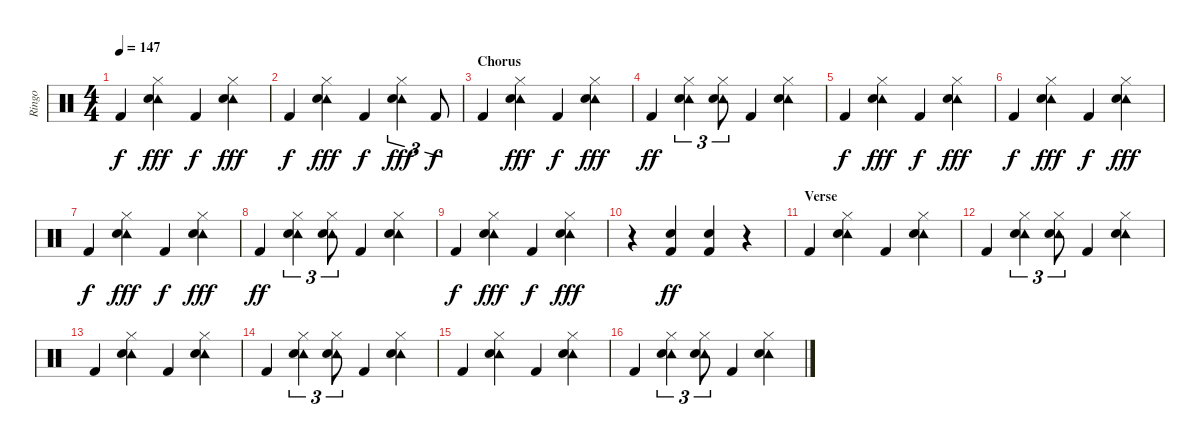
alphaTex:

\track ("Ringo" "Ringo") {instrument percussion}
\staff {score}
\articulation defaults
\ts (4 4)
\tempo 147
\clef neutral
\ks c "Kick (hit) 2".4{dy f}
("Tambourine (hit)" "Hi-Hat (closed)" "Snare (hit) 2").4{dy fff} "Kick (hit) 2".4{dy f} ("Tambourine (hit)" "Hi-Hat (closed)" "Snare (hit) 2").4{dy fff} |
"Kick (hit) 2".4{dy f} ("Tambourine (hit)" "Hi-Hat (closed)" "Snare (hit) 2").4{dy fff} "Kick (hit) 2".4{dy f} ("Tambourine (hit)" "Hi-Hat (closed)" "Snare (hit) 2").4{tu (3 2) dy fff} "Kick (hit) 2".8{tu (3 2) dy f} |
\section ("" "Chorus")
"Kick (hit) 2".4 ("Tambourine (hit)" "Hi-Hat (closed)" "Snare (hit) 2").4{dy fff} "Kick (hit) 2".4{dy f} ("Tambourine (hit)" "Hi-Hat (closed)" "Snare (hit) 2").4{dy fff} |
"Kick (hit) 2".4{dy ff} ("Tambourine (hit)" "Hi-Hat (closed)" "Snare (hit) 2").4{tu (3 2)} ("Tambourine (hit)" "Hi-Hat (closed)" "Snare (hit) 2").8{tu (3 2)} "Kick (hit) 2".4 ("Tambourine (hit)" "Hi-Hat (closed)" "Snare (hit) 2").4 |
"Kick (hit) 2".4{dy f} ("Tambourine (hit)" "Hi-Hat (closed)" "Snare (hit) 2").4{dy fff} "Kick (hit) 2".4{dy f} ("Tambourine (hit)" "Hi-Hat (closed)" "Snare (hit) 2").4{dy fff} |
"Kick (hit) 2".4{dy f} ("Tambourine (hit)" "Hi-Hat (closed)" "Snare (hit) 2").4{dy fff} "Kick (hit) 2".4{dy f} ("Tambourine (hit)" "Hi-Hat (closed)" "Snare (hit) 2").4{dy fff} |
"Kick (hit) 2".4{dy f} ("Tambourine (hit)" "Hi-Hat (closed)" "Snare (hit) 2").4{dy fff} "Kick (hit) 2".4{dy f} ("Tambourine (hit)" "Hi-Hat (closed)" "Snare (hit) 2").4{dy fff} |
"Kick (hit) 2".4{dy ff} ("Tambourine (hit)" "Hi-Hat (closed)" "Snare (hit) 2").4{tu (3 2)} ("Tambourine (hit)" "Hi-Hat (closed)" "Snare (hit) 2").8{tu (3 2)} "Kick (hit) 2".4 ("Tambourine (hit)" "Hi-Hat (closed)" "Snare (hit) 2").4 |
"Kick (hit) 2".4{dy f} ("Tambourine (hit)" "Hi-Hat (closed)" "Snare (hit) 2").4{dy fff} "Kick (hit) 2".4{dy f} ("Tambourine (hit)" "Hi-Hat (closed)" "Snare (hit) 2").4{dy fff} |
r.4 ("Snare (hit) 2" "Kick (hit) 2").4{dy ff volume 16} ("Snare (hit) 2" "Kick (hit) 2").4 r.4 |
\section ("" "Verse")
"Kick (hit) 2".4{volume 13} ("Tambourine (hit)" "Hi-Hat (closed)" "Snare (hit) 2").4 "Kick (hit) 2".4 ("Tambourine (hit)" "Hi-Hat (closed)" "Snare (hit) 2").4 |
"Kick (hit) 2".4 ("Tambourine (hit)" "Hi-Hat (closed)" "Snare (hit) 2").4{tu (3 2)} ("Tambourine (hit)" "Hi-Hat (closed)" "Snare (hit) 2").8{tu (3 2)} "Kick (hit) 2".4 ("Tambourine (hit)" "Hi-Hat (closed)" "Snare (hit) 2").4 |
"Kick (hit) 2".4 ("Tambourine (hit)" "Hi-Hat (closed)" "Snare (hit) 2").4 "Kick (hit) 2".4 ("Tambourine (hit)" "Hi-Hat (closed)" "Snare (hit) 2").4 |
"Kick (hit) 2".4 ("Tambourine (hit)" "Hi-Hat (closed)" "Snare (hit) 2").4{tu (3 2)} ("Tambourine (hit)" "Hi-Hat (closed)" "Snare (hit) 2").8{tu (3 2)} "Kick (hit) 2".4 ("Tambourine (hit)" "Hi-Hat (closed)" "Snare (hit) 2").4 |
"Kick (hit) 2".4 ("Tambourine (hit)" "Hi-Hat (closed)" "Snare (hit) 2").4 "Kick (hit) 2".4 ("Tambourine (hit)" "Hi-Hat (closed)" "Snare (hit) 2").4 |
"Kick (hit) 2".4 ("Tambourine (hit)" "Hi-Hat (closed)" "Snare (hit) 2").4{tu (3 2)} ("Tambourine (hit)" "Hi-Hat (closed)" "Snare (hit) 2").8{tu (3 2)} "Kick (hit) 2".4 ("Tambourine (hit)" "Hi-Hat (closed)" "Snare (hit) 2").4
